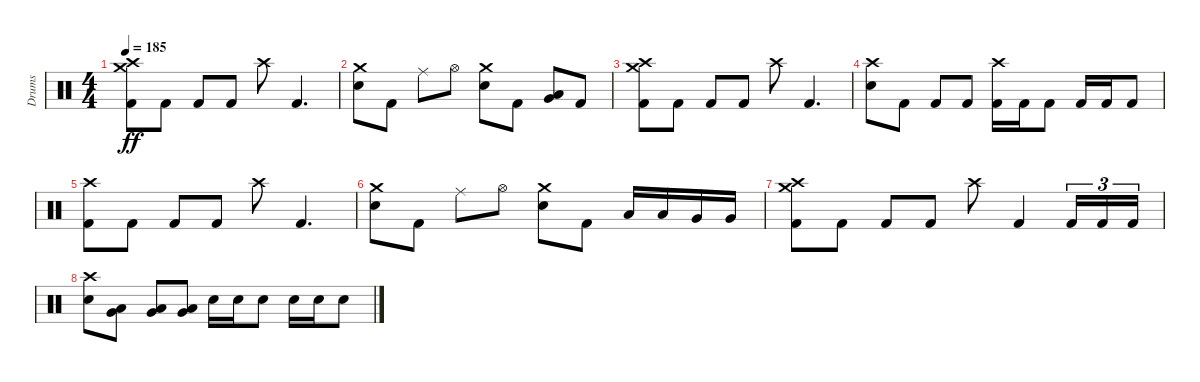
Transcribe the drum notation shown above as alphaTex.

\track ("Drums" "Drums") {instrument percussion}
\staff {score}
\articulation defaults
\ts (4 4)
\tempo 185
\clef neutral
\ks c
("Crash high (hit)" "Crash medium (hit)" "Kick (hit) 2").8{dy ff} "Kick (hit) 2".8 "Kick (hit) 2".8 "Kick (hit) 2".8 "Crash high (hit)".8 "Kick (hit) 2".4{d} |
("Crash medium (hit)" "Electric Snare (hit)").8 "Kick (hit) 2".8 "Ride (middle)".8 "Hi-Hat (open)".8 ("Crash medium (hit)" "Electric Snare (hit)").8 "Kick (hit) 2".8 ("Very Low Tom (hit)" "Low Tom (hit)").8 "Kick (hit) 2".8 |
("Crash high (hit)" "Crash medium (hit)" "Kick (hit) 2").8 "Kick (hit) 2".8 "Kick (hit) 2".8 "Kick (hit) 2".8 "Crash high (hit)".8 "Kick (hit) 2".4{d} |
("Crash high (hit)" "Electric Snare (hit)").8 "Kick (hit) 2".8 "Kick (hit) 2".8 "Kick (hit) 2".8 ("Crash high (hit)" "Kick (hit) 2").16 "Kick (hit) 2".16 "Kick (hit) 2".8 "Kick (hit) 2".16 "Kick (hit) 2".16 "Kick (hit) 2".8 |
("Crash high (hit)" "Kick (hit) 2").8 "Kick (hit) 2".8 "Kick (hit) 2".8 "Kick (hit) 2".8 "Crash high (hit)".8 "Kick (hit) 2".4{d} |
("Crash medium (hit)" "Electric Snare (hit)").8 "Kick (hit) 2".8 "Ride (middle)".8 "Hi-Hat (open)".8 ("Crash medium (hit)" "Electric Snare (hit)").8 "Kick (hit) 2".8 "Low Tom (hit)".16 "Low Tom (hit)".16 "Very Low Tom (hit)".16 "Very Low Tom (hit)".16 |
("Crash high (hit)" "Crash medium (hit)" "Kick (hit) 2").8 "Kick (hit) 2".8 "Kick (hit) 2".8 "Kick (hit) 2".8 "Crash high (hit)".8 "Kick (hit) 2".4 "Kick (hit) 2".16{tu (3 2)} "Kick (hit) 2".16{tu (3 2)} "Kick (hit) 2".16{tu (3 2)} |
("Crash high (hit)" "Electric Snare (hit)").8 ("Very Low Tom (hit)" "Low Floor Tom (hit)").8 ("Very Low Tom (hit)" "Low Floor Tom (hit)").8 ("Very Low Tom (hit)" "Low Floor Tom (hit)").8 "Electric Snare (hit)".16 "Electric Snare (hit)".16 "Electric Snare (hit)".8 "Electric Snare (hit)".16 "Electric Snare (hit)".16 "Electric Snare (hit)".8
